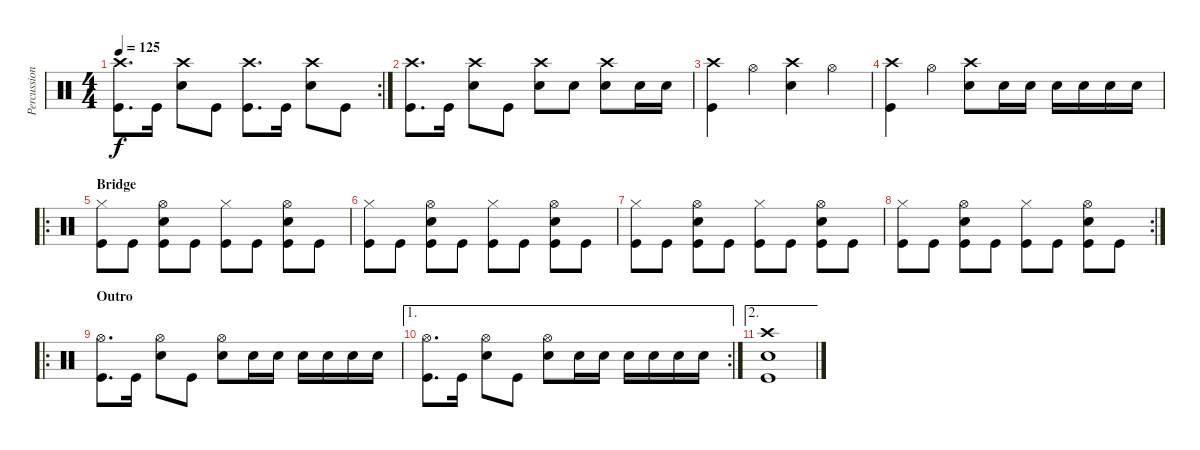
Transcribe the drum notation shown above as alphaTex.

\track ("Percussion" "Percussion") {instrument percussion}
\staff {score}
\articulation defaults
\rc 2
\ts (4 4)
\tempo 125
\clef neutral
\ks c
("Crash high (hit)" "Kick (hit)").8{d dy f} "Kick (hit)".16 ("Crash high (hit)" "Snare (hit) 2").8 "Kick (hit)".8 ("Crash high (hit)" "Kick (hit)").8{d} "Kick (hit)".16 ("Crash high (hit)" "Snare (hit) 2").8 "Kick (hit)".8 |
("Crash high (hit)" "Kick (hit)").8{d} "Kick (hit)".16 ("Crash high (hit)" "Snare (hit) 2").8 "Kick (hit)".8 ("Crash high (hit)" "Snare (hit) 2").8 "Snare (hit) 2".8 ("Crash high (hit)" "Snare (hit) 2").8 "Snare (hit) 2".16 "Snare (hit) 2".16 |
("Crash high (hit)" "Kick (hit)").4 "Hi-Hat (open)".4 ("Crash high (hit)" "Snare (hit) 2").4 "Hi-Hat (open)".4 |
("Crash high (hit)" "Kick (hit)").4 "Hi-Hat (open)".4 ("Crash high (hit)" "Snare (hit) 2").8 "Snare (hit) 2".16 "Snare (hit) 2".16 "Snare (hit) 2".16 "Snare (hit) 2".16 "Snare (hit) 2".16 "Snare (hit) 2".16 |
\ro
\section ("" "Bridge")
("Hi-Hat (closed)" "Kick (hit)").8 "Kick (hit)".8 ("Hi-Hat (open)" "Snare (hit) 2" "Kick (hit)").8 "Kick (hit)".8 ("Hi-Hat (closed)" "Kick (hit)").8 "Kick (hit)".8 ("Hi-Hat (open)" "Snare (hit) 2" "Kick (hit)").8 "Kick (hit)".8 |
("Hi-Hat (closed)" "Kick (hit)").8 "Kick (hit)".8 ("Hi-Hat (open)" "Snare (hit) 2" "Kick (hit)").8 "Kick (hit)".8 ("Hi-Hat (closed)" "Kick (hit)").8 "Kick (hit)".8 ("Hi-Hat (open)" "Snare (hit) 2" "Kick (hit)").8 "Kick (hit)".8 |
("Hi-Hat (closed)" "Kick (hit)").8 "Kick (hit)".8 ("Hi-Hat (open)" "Snare (hit) 2" "Kick (hit)").8 "Kick (hit)".8 ("Hi-Hat (closed)" "Kick (hit)").8 "Kick (hit)".8 ("Hi-Hat (open)" "Snare (hit) 2" "Kick (hit)").8 "Kick (hit)".8 |
\rc 2
("Hi-Hat (closed)" "Kick (hit)").8 "Kick (hit)".8 ("Hi-Hat (open)" "Snare (hit) 2" "Kick (hit)").8 "Kick (hit)".8 ("Hi-Hat (closed)" "Kick (hit)").8 "Kick (hit)".8 ("Hi-Hat (open)" "Snare (hit) 2" "Kick (hit)").8 "Kick (hit)".8 |
\ro
\section ("" "Outro")
("Hi-Hat (open)" "Kick (hit)").8{d} "Kick (hit)".16 ("Hi-Hat (open)" "Snare (hit) 2").8 "Kick (hit)".8 ("Hi-Hat (open)" "Snare (hit) 2").8 "Snare (hit) 2".16 "Snare (hit) 2".16 "Snare (hit) 2".16 "Snare (hit) 2".16 "Snare (hit) 2".16 "Snare (hit) 2".16 |
\ae 1
\rc 2
("Hi-Hat (open)" "Kick (hit)").8{d} "Kick (hit)".16 ("Hi-Hat (open)" "Snare (hit) 2").8 "Kick (hit)".8 ("Hi-Hat (open)" "Snare (hit) 2").8 "Snare (hit) 2".16 "Snare (hit) 2".16 "Snare (hit) 2".16 "Snare (hit) 2".16 "Snare (hit) 2".16 "Snare (hit) 2".16 |
\ae 2
("Crash high (hit)" "Snare (hit) 2" "Kick (hit)").1
